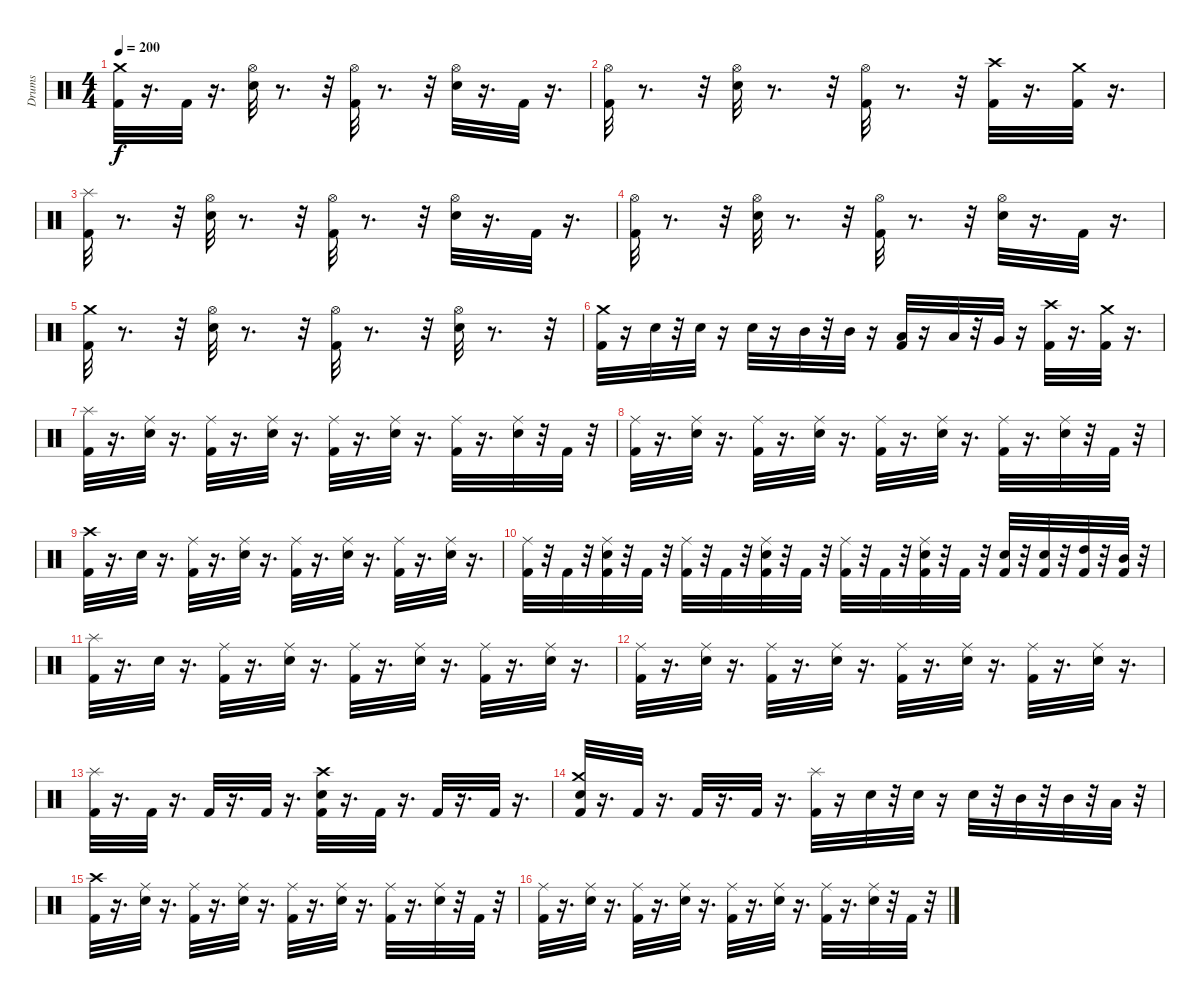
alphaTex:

\track ("Drums" "Drums") {instrument percussion}
\staff {score}
\articulation defaults
\ts (4 4)
\tempo 200
\clef neutral
\ks c
("Kick (hit) 2" "Crash medium (hit)").32{dy f} r.16{d} "Kick (hit) 2".32 r.16{d} ("Hi-Hat (open)" "Electric Snare (hit)").32 r.8{d} r.32 ("Hi-Hat (open)" "Kick (hit) 2").32 r.8{d} r.32 ("Hi-Hat (open)" "Electric Snare (hit)").32 r.16{d} "Kick (hit) 2".32 r.16{d} |
("Hi-Hat (open)" "Kick (hit) 2").32 r.8{d} r.32 ("Hi-Hat (open)" "Electric Snare (hit)").32 r.8{d} r.32 ("Hi-Hat (open)" "Kick (hit) 2").32 r.8{d} r.32 ("Kick (hit) 2" "Crash high (hit)").32 r.16{d} ("Kick (hit) 2" "Crash medium (hit)").32 r.16{d} |
("Splash (hit)" "Kick (hit) 2").32 r.8{d} r.32 ("Electric Snare (hit)" "Hi-Hat (open)").32 r.8{d} r.32 ("Kick (hit) 2" "Hi-Hat (open)").32 r.8{d} r.32 ("Electric Snare (hit)" "Hi-Hat (open)").32 r.16{d} "Kick (hit) 2".32 r.16{d} |
("Kick (hit) 2" "Hi-Hat (open)").32 r.8{d} r.32 ("Electric Snare (hit)" "Hi-Hat (open)").32 r.8{d} r.32 ("Kick (hit) 2" "Hi-Hat (open)").32 r.8{d} r.32 ("Electric Snare (hit)" "Hi-Hat (open)").32 r.16{d} "Kick (hit) 2".32 r.16{d} |
("Kick (hit) 2" "Crash medium (hit)").32 r.8{d} r.32 ("Electric Snare (hit)" "Hi-Hat (open)").32 r.8{d} r.32 ("Kick (hit) 2" "Hi-Hat (open)").32 r.8{d} r.32 ("Electric Snare (hit)" "Hi-Hat (open)").32 r.8{d} r.32 |
("Crash medium (hit)" "Kick (hit) 2").32 r.16 "Electric Snare (hit)".32 r.32 "Electric Snare (hit)".32 r.16 "Electric Snare (hit)".32 r.16 "Mid Tom (hit)".32 r.32 "Mid Tom (hit)".32 r.16 ("Low Tom (hit)" "Kick (hit) 2").32 r.16 "Low Tom (hit)".32 r.32 "Very Low Tom (hit)".32 r.16 ("Kick (hit) 2" "Crash high (hit)").32 r.16{d} ("Kick (hit) 2" "Crash medium (hit)").32 r.16{d} |
("Splash (hit)" "Kick (hit) 2").32 r.16{d} ("Electric Snare (hit)" "Ride (middle)").32 r.16{d} ("Kick (hit) 2" "Ride (middle)").32 r.16{d} ("Electric Snare (hit)" "Ride (middle)").32 r.16{d} ("Kick (hit) 2" "Ride (middle)").32 r.16{d} ("Electric Snare (hit)" "Ride (middle)").32 r.16{d} ("Kick (hit) 2" "Ride (middle)").32 r.16{d} ("Electric Snare (hit)" "Ride (middle)").32 r.32 "Kick (hit) 2".32 r.32 |
("Kick (hit) 2" "Ride (middle)").32 r.16{d} ("Electric Snare (hit)" "Ride (middle)").32 r.16{d} ("Kick (hit) 2" "Ride (middle)").32 r.16{d} ("Electric Snare (hit)" "Ride (middle)").32 r.16{d} ("Kick (hit) 2" "Ride (middle)").32 r.16{d} ("Electric Snare (hit)" "Ride (middle)").32 r.16{d} ("Kick (hit) 2" "Ride (middle)").32 r.16{d} ("Electric Snare (hit)" "Ride (middle)").32 r.32 "Kick (hit) 2".32 r.32 |
("Kick (hit) 2" "Crash high (hit)").32 r.16{d} "Electric Snare (hit)".32 r.16{d} ("Kick (hit) 2" "Ride (middle)").32 r.16{d} ("Electric Snare (hit)" "Ride (middle)").32 r.16{d} ("Kick (hit) 2" "Ride (middle)").32 r.16{d} ("Electric Snare (hit)" "Ride (middle)").32 r.16{d} ("Kick (hit) 2" "Ride (middle)").32 r.16{d} ("Electric Snare (hit)" "Ride (middle)").32 r.16{d} |
("Kick (hit) 2" "Ride (middle)").32 r.32 "Kick (hit) 2".32 r.32 ("Kick (hit) 2" "Electric Snare (hit)" "Ride (middle)").32 r.32 "Kick (hit) 2".32 r.32 ("Kick (hit) 2" "Ride (middle)").32 r.32 "Kick (hit) 2".32 r.32 ("Kick (hit) 2" "Electric Snare (hit)" "Ride (middle)").32 r.32 "Kick (hit) 2".32 r.32 ("Kick (hit) 2" "Ride (middle)").32 r.32 "Kick (hit) 2".32 r.32 ("Kick (hit) 2" "Electric Snare (hit)" "Ride (middle)").32 r.32 "Kick (hit) 2".32 r.32 ("Electric Snare (hit)" "Kick (hit) 2").32 r.32 ("Electric Snare (hit)" "Kick (hit) 2").32 r.32 ("High Tom (hit)" "Kick (hit) 2").32 r.32 ("Mid Tom (hit)" "Kick (hit) 2").32 r.32 |
("Kick (hit) 2" "Splash (hit)").32 r.16{d} "Electric Snare (hit)".32 r.16{d} ("Kick (hit) 2" "Ride (middle)").32 r.16{d} ("Electric Snare (hit)" "Ride (middle)").32 r.16{d} ("Kick (hit) 2" "Ride (middle)").32 r.16{d} ("Electric Snare (hit)" "Ride (middle)").32 r.16{d} ("Kick (hit) 2" "Ride (middle)").32 r.16{d} ("Electric Snare (hit)" "Ride (middle)").32 r.16{d} |
("Kick (hit) 2" "Ride (middle)").32 r.16{d} ("Electric Snare (hit)" "Ride (middle)").32 r.16{d} ("Kick (hit) 2" "Ride (middle)").32 r.16{d} ("Electric Snare (hit)" "Ride (middle)").32 r.16{d} ("Kick (hit) 2" "Ride (middle)").32 r.16{d} ("Electric Snare (hit)" "Ride (middle)").32 r.16{d} ("Kick (hit) 2" "Ride (middle)").32 r.16{d} ("Electric Snare (hit)" "Ride (middle)").32 r.16{d} |
("Kick (hit) 2" "Splash (hit)").32 r.16{d} "Kick (hit) 2".32 r.16{d} "Kick (hit) 2".32 r.16{d} "Kick (hit) 2".32 r.16{d} ("Electric Snare (hit)" "Crash high (hit)" "Kick (hit) 2").32 r.16{d} "Kick (hit) 2".32 r.16{d} "Kick (hit) 2".32 r.16{d} "Kick (hit) 2".32 r.16{d} |
("Electric Snare (hit)" "Kick (hit) 2" "Crash medium (hit)").32 r.16{d} "Kick (hit) 2".32 r.16{d} "Kick (hit) 2".32 r.16{d} "Kick (hit) 2".32 r.16{d} ("Kick (hit) 2" "Splash (hit)").32 r.16 "Electric Snare (hit)".32 r.32 "Electric Snare (hit)".32 r.16 "Electric Snare (hit)".32 r.32 "Mid Tom (hit)".32 r.32 "Mid Tom (hit)".32 r.32 "Low Tom (hit)".32 r.32 |
("Crash high (hit)" "Kick (hit) 2").32 r.16{d} ("Electric Snare (hit)" "Ride (middle)").32 r.16{d} ("Kick (hit) 2" "Ride (middle)").32 r.16{d} ("Electric Snare (hit)" "Ride (middle)").32 r.16{d} ("Kick (hit) 2" "Ride (middle)").32 r.16{d} ("Electric Snare (hit)" "Ride (middle)").32 r.16{d} ("Kick (hit) 2" "Ride (middle)").32 r.16{d} ("Electric Snare (hit)" "Ride (middle)").32 r.32 "Kick (hit) 2".32 r.32 |
("Kick (hit) 2" "Ride (middle)").32 r.16{d} ("Electric Snare (hit)" "Ride (middle)").32 r.16{d} ("Kick (hit) 2" "Ride (middle)").32 r.16{d} ("Electric Snare (hit)" "Ride (middle)").32 r.16{d} ("Kick (hit) 2" "Ride (middle)").32 r.16{d} ("Electric Snare (hit)" "Ride (middle)").32 r.16{d} ("Kick (hit) 2" "Ride (middle)").32 r.16{d} ("Electric Snare (hit)" "Ride (middle)").32 r.32 "Kick (hit) 2".32 r.32
